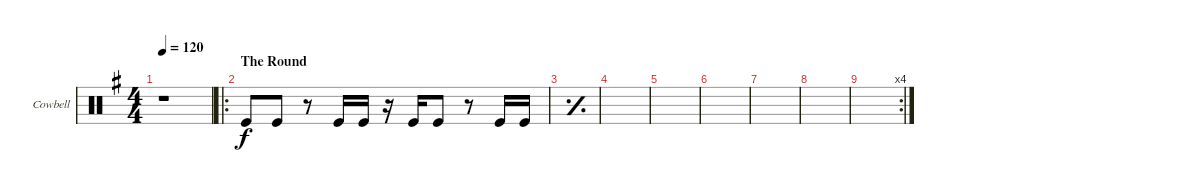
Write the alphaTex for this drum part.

\defaultSystemsLayout 4
\bracketExtendMode groupsimilarinstruments
\firstSystemTrackNameOrientation horizontal
\otherSystemsTrackNameOrientation horizontal
\track ("Cowbell" "Cowbell") {instrument percussion}
\staff {score}
\articulation defaults
\ts (4 4)
\tempo 120
\clef neutral
\scale
0.477178
\ks g
r.1{dy f} |
\ro
\section ("" "The Round")
\scale
0.572614 "Kick (hit)".8 "Kick (hit)".8 r.8 "Kick (hit)".16 "Kick (hit)".16 r.16 "Kick (hit)".16 "Kick (hit)".8 r.8 "Kick (hit)".16 "Kick (hit)".16 |
\simile simple
\scale
0.167519 |
\scale
0.149871 |
\scale
0.160207 |
\scale
0.18863 |
\scale
0.16518 |
\scale
0.185827 |
\rc 4
\scale
0.216587
